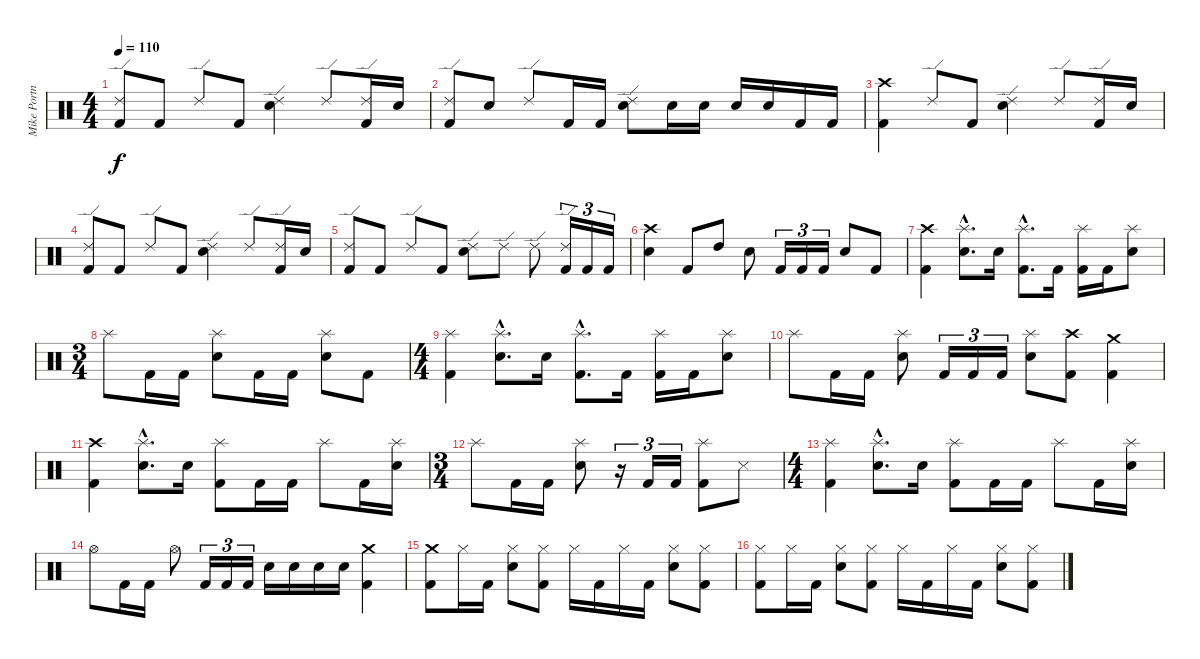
\track ("Mike Portnoy - Drums" "Mike Portn") {instrument percussion}
\staff {score}
\articulation defaults
\ts (4 4)
\tempo 110
\clef neutral
\ks c
("Ride (edge) 2" "Kick (hit) 2").8{dy f} "Kick (hit) 2".8 "Ride (edge) 2".8 "Kick (hit) 2".8 ("Ride (edge) 2" "Electric Snare (hit)").4 "Ride (edge) 2".8 ("Ride (edge) 2" "Kick (hit) 2").16 "Electric Snare (hit)".16 |
("Ride (edge) 2" "Kick (hit) 2").8 "Snare (hit)".8 "Ride (edge) 2".8 "Kick (hit) 2".16 "Kick (hit) 2".16 ("Ride (edge) 2" "Electric Snare (hit)").8 "Electric Snare (hit)".16 "Electric Snare (hit)".16 "Electric Snare (hit)".16 "Electric Snare (hit)".16 "Kick (hit) 2".16 "Kick (hit) 2".16 |
("Crash high (hit)" "Kick (hit) 2").4 "Ride (edge) 2".8 "Kick (hit) 2".8 ("Ride (edge) 2" "Electric Snare (hit)").4 "Ride (edge) 2".8 ("Ride (edge) 2" "Kick (hit) 2").16 "Electric Snare (hit)".16 |
("Ride (edge) 2" "Kick (hit) 2").8 "Kick (hit) 2".8 "Ride (edge) 2".8 "Kick (hit) 2".8 ("Ride (edge) 2" "Electric Snare (hit)").4 "Ride (edge) 2".8 ("Ride (edge) 2" "Kick (hit) 2").16 "Electric Snare (hit)".16 |
("Ride (edge) 2" "Kick (hit) 2").8 "Kick (hit) 2".8 "Ride (edge) 2".8 "Kick (hit) 2".8 ("Ride (edge) 2" "Electric Snare (hit)").8 "Ride (edge) 2".8 "Ride (edge) 2".8 ("Ride (edge) 2" "Kick (hit) 2").16{tu (3 2)} "Kick (hit) 2".16{tu (3 2)} "Kick (hit) 2".16{tu (3 2)} |
("Crash high (hit)" "Electric Snare (hit)").4 "Kick (hit) 2".8 "High Tom (hit)".8 "Electric Snare (hit)".8 "Kick (hit) 2".16{tu (3 2)} "Kick (hit) 2".16{tu (3 2)} "Kick (hit) 2".16{tu (3 2)} "Electric Snare (hit)".8 "Kick (hit) 2".8 |
("Crash high (hit)" "Kick (hit) 2").4 ("Splash (hit)"{hac} "Electric Snare (hit)"{hac}).8{d} "Electric Snare (hit)".16 ("Splash (hit)"{hac} "Kick (hit) 2"{hac}).8{d} "Kick (hit) 2".16 ("Splash (hit)" "Kick (hit) 2").16 "Kick (hit) 2".16 ("Splash (hit)" "Electric Snare (hit)").8 |
\ts (3 4)
"Splash (hit)".8 "Kick (hit) 2".16 "Kick (hit) 2".16 ("Splash (hit)" "Electric Snare (hit)").8 "Kick (hit) 2".16 "Kick (hit) 2".16 ("Splash (hit)" "Electric Snare (hit)").8 "Kick (hit) 2".8 |
\ts (4 4)
("Splash (hit)" "Kick (hit) 2").4 ("Splash (hit)"{hac} "Electric Snare (hit)"{hac}).8{d} "Electric Snare (hit)".16 ("Splash (hit)"{hac} "Kick (hit) 2"{hac}).8{d} "Kick (hit) 2".16 ("Splash (hit)" "Kick (hit) 2").16 "Kick (hit) 2".16 ("Splash (hit)" "Electric Snare (hit)").8 |
"Splash (hit)".8 "Kick (hit) 2".16 "Kick (hit) 2".16 ("Splash (hit)" "Electric Snare (hit)").8 "Kick (hit) 2".16{tu (3 2)} "Kick (hit) 2".16{tu (3 2)} "Kick (hit) 2".16{tu (3 2)} ("Splash (hit)" "Electric Snare (hit)").8 ("Crash high (hit)" "Kick (hit) 2").8 ("Crash medium (hit)" "Kick (hit) 2").4 |
("Crash high (hit)" "Kick (hit) 2").4 ("Splash (hit)"{hac} "Electric Snare (hit)"{hac}).8{d} "Electric Snare (hit)".16 ("Splash (hit)" "Kick (hit) 2").8 "Kick (hit) 2".16 "Kick (hit) 2".16 "Splash (hit)".8 "Kick (hit) 2".16 ("Splash (hit)" "Electric Snare (hit)").16 |
\ts (3 4)
"Splash (hit)".8 "Kick (hit) 2".16 "Kick (hit) 2".16 ("Splash (hit)" "Electric Snare (hit)").8 r.16{tu (3 2)} "Kick (hit) 2".16{tu (3 2)} "Kick (hit) 2".16{tu (3 2)} ("Splash (hit)" "Kick (hit) 2").8 "Metronome (hit)".8 |
\ts (4 4)
("Splash (hit)" "Kick (hit) 2").4 ("Splash (hit)"{hac} "Electric Snare (hit)"{hac}).8{d} "Electric Snare (hit)".16 ("Splash (hit)" "Kick (hit) 2").8 "Kick (hit) 2".16 "Kick (hit) 2".16 "Splash (hit)".8 "Kick (hit) 2".16 ("Splash (hit)" "Electric Snare (hit)").16 |
"Hi-Hat (open)".8 "Kick (hit) 2".16 "Kick (hit) 2".16 "Hi-Hat (open)".8 "Kick (hit) 2".16{tu (3 2)} "Kick (hit) 2".16{tu (3 2)} "Kick (hit) 2".16{tu (3 2)} "Electric Snare (hit)".16 "Electric Snare (hit)".16 "Electric Snare (hit)".16 "Electric Snare (hit)".16 ("Crash medium (hit)" "Kick (hit) 2").4 |
("Crash medium (hit)" "Kick (hit) 2").8 "Hi-Hat (closed)".16 "Kick (hit) 2".16 ("Hi-Hat (closed)" "Electric Snare (hit)").8 ("Hi-Hat (closed)" "Kick (hit) 2").8 "Hi-Hat (closed)".16 "Kick (hit) 2".16 "Hi-Hat (closed)".16 "Kick (hit) 2".16 ("Hi-Hat (closed)" "Electric Snare (hit)").8 ("Hi-Hat (closed)" "Kick (hit) 2").8 |
("Hi-Hat (closed)" "Kick (hit) 2").8 "Hi-Hat (closed)".16 "Kick (hit) 2".16 ("Hi-Hat (closed)" "Electric Snare (hit)").8 ("Hi-Hat (closed)" "Kick (hit) 2").8 "Hi-Hat (closed)".16 "Kick (hit) 2".16 "Hi-Hat (closed)".16 "Kick (hit) 2".16 ("Hi-Hat (closed)" "Electric Snare (hit)").8 ("Hi-Hat (closed)" "Kick (hit) 2").8
